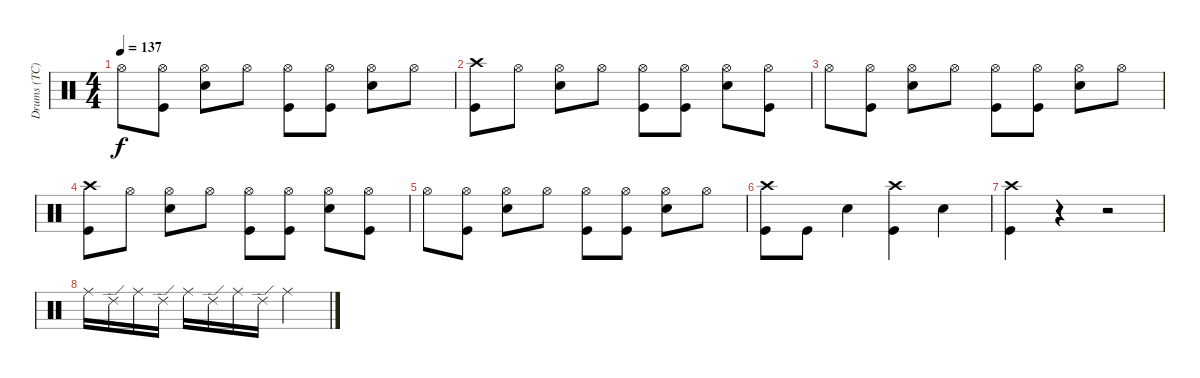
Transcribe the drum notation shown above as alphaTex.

\track ("Drums (TC)" "Drums (TC)") {instrument percussion}
\staff {score}
\articulation defaults
\ts (4 4)
\tempo 137
\clef neutral
\ks c "Hi-Hat (open)".8{dy f}
("Hi-Hat (open)" "Kick (hit)").8 ("Snare (hit) 2" "Hi-Hat (open)").8 "Hi-Hat (open)".8 ("Hi-Hat (open)" "Kick (hit)").8 ("Hi-Hat (open)" "Kick (hit)").8 ("Snare (hit) 2" "Hi-Hat (open)").8 "Hi-Hat (open)".8 |
("Crash high (hit)" "Kick (hit)").8 "Hi-Hat (open)".8 ("Snare (hit) 2" "Hi-Hat (open)").8 "Hi-Hat (open)".8 ("Hi-Hat (open)" "Kick (hit)").8 ("Hi-Hat (open)" "Kick (hit)").8 ("Snare (hit) 2" "Hi-Hat (open)").8 ("Hi-Hat (open)" "Kick (hit)").8 |
"Hi-Hat (open)".8 ("Hi-Hat (open)" "Kick (hit)").8 ("Snare (hit) 2" "Hi-Hat (open)").8 "Hi-Hat (open)".8 ("Hi-Hat (open)" "Kick (hit)").8 ("Hi-Hat (open)" "Kick (hit)").8 ("Snare (hit) 2" "Hi-Hat (open)").8 "Hi-Hat (open)".8 |
("Crash high (hit)" "Kick (hit)").8 "Hi-Hat (open)".8 ("Snare (hit) 2" "Hi-Hat (open)").8 "Hi-Hat (open)".8 ("Hi-Hat (open)" "Kick (hit)").8 ("Hi-Hat (open)" "Kick (hit)").8 ("Snare (hit) 2" "Hi-Hat (open)").8 ("Hi-Hat (open)" "Kick (hit)").8 |
"Hi-Hat (open)".8 ("Hi-Hat (open)" "Kick (hit)").8 ("Snare (hit) 2" "Hi-Hat (open)").8 "Hi-Hat (open)".8 ("Hi-Hat (open)" "Kick (hit)").8 ("Hi-Hat (open)" "Kick (hit)").8 ("Snare (hit) 2" "Hi-Hat (open)").8 "Hi-Hat (open)".8 |
("Crash high (hit)" "Kick (hit)").8 "Kick (hit)".8 "Snare (hit) 2".4 ("Crash high (hit)" "Kick (hit)").4 "Snare (hit) 2".4 |
("Crash high (hit)" "Kick (hit)").4 r.4 r.2 |
"Ride (middle)".16 "Ride (edge) 2".16 "Ride (middle)".16 "Ride (edge) 2".16 "Ride (middle)".16 "Ride (edge) 2".16 "Ride (middle)".16 "Ride (edge) 2".16 "Ride (middle)".2
